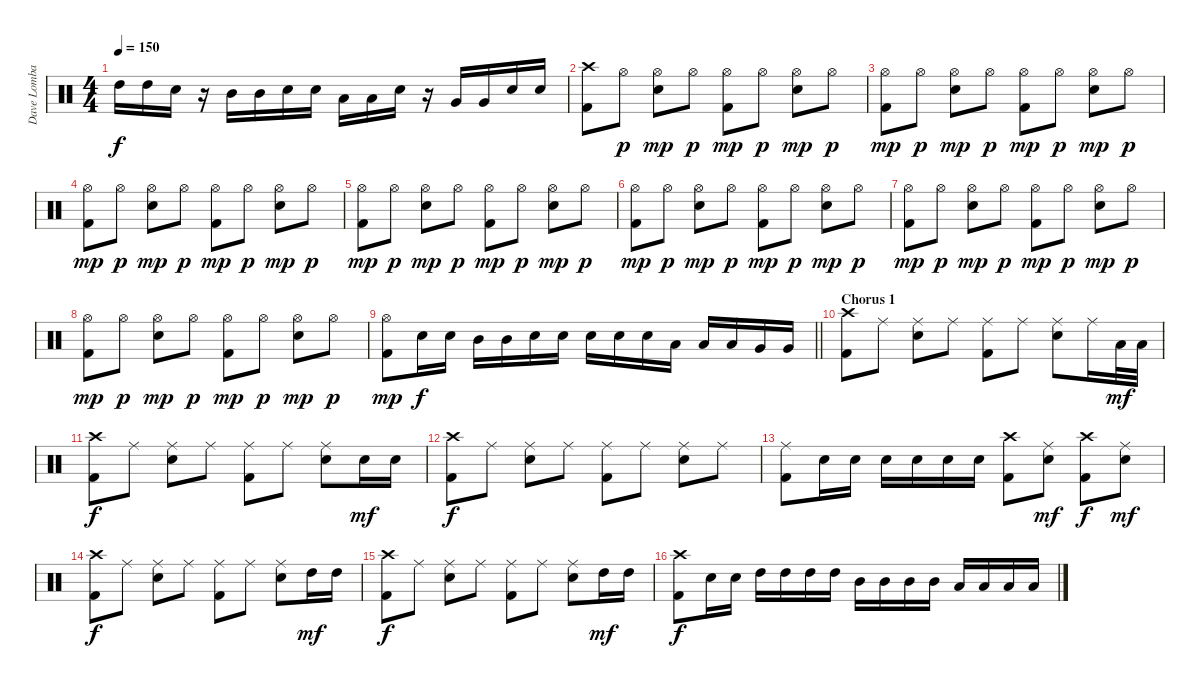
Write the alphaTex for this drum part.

\track ("Dave Lombardo (Drums)" "Dave Lomba") {instrument percussion}
\staff {score}
\articulation defaults
\ts (4 4)
\tempo 150
\clef neutral
\ks c "High Tom (hit)".16{dy f} "High Tom (hit)".16 "Electric Snare (hit)".16
r.16 "Mid Tom (hit)".16 "Mid Tom (hit)".16 "Electric Snare (hit)".16 "Electric Snare (hit)".16 "Low Tom (hit)".16 "Low Tom (hit)".16 "Electric Snare (hit)".16 r.16 "Very Low Tom (hit)".16 "Very Low Tom (hit)".16 "Electric Snare (hit)".16 "Electric Snare (hit)".16 |
("Crash high (hit)" "Kick (hit) 2").8 "Hi-Hat (open)".8{dy p} ("Hi-Hat (open)" "Electric Snare (hit)").8{dy mp} "Hi-Hat (open)".8{dy p} ("Hi-Hat (open)" "Kick (hit) 2").8{dy mp} "Hi-Hat (open)".8{dy p} ("Hi-Hat (open)" "Electric Snare (hit)").8{dy mp} "Hi-Hat (open)".8{dy p} |
("Hi-Hat (open)" "Kick (hit) 2").8{dy mp} "Hi-Hat (open)".8{dy p} ("Hi-Hat (open)" "Electric Snare (hit)").8{dy mp} "Hi-Hat (open)".8{dy p} ("Hi-Hat (open)" "Kick (hit) 2").8{dy mp} "Hi-Hat (open)".8{dy p} ("Hi-Hat (open)" "Electric Snare (hit)").8{dy mp} "Hi-Hat (open)".8{dy p} |
("Hi-Hat (open)" "Kick (hit) 2").8{dy mp} "Hi-Hat (open)".8{dy p} ("Hi-Hat (open)" "Electric Snare (hit)").8{dy mp} "Hi-Hat (open)".8{dy p} ("Hi-Hat (open)" "Kick (hit) 2").8{dy mp} "Hi-Hat (open)".8{dy p} ("Hi-Hat (open)" "Electric Snare (hit)").8{dy mp} "Hi-Hat (open)".8{dy p} |
("Hi-Hat (open)" "Kick (hit) 2").8{dy mp} "Hi-Hat (open)".8{dy p} ("Hi-Hat (open)" "Electric Snare (hit)").8{dy mp} "Hi-Hat (open)".8{dy p} ("Hi-Hat (open)" "Kick (hit) 2").8{dy mp} "Hi-Hat (open)".8{dy p} ("Hi-Hat (open)" "Electric Snare (hit)").8{dy mp} "Hi-Hat (open)".8{dy p} |
("Hi-Hat (open)" "Kick (hit) 2").8{dy mp} "Hi-Hat (open)".8{dy p} ("Hi-Hat (open)" "Electric Snare (hit)").8{dy mp} "Hi-Hat (open)".8{dy p} ("Hi-Hat (open)" "Kick (hit) 2").8{dy mp} "Hi-Hat (open)".8{dy p} ("Hi-Hat (open)" "Electric Snare (hit)").8{dy mp} "Hi-Hat (open)".8{dy p} |
("Hi-Hat (open)" "Kick (hit) 2").8{dy mp} "Hi-Hat (open)".8{dy p} ("Hi-Hat (open)" "Electric Snare (hit)").8{dy mp} "Hi-Hat (open)".8{dy p} ("Hi-Hat (open)" "Kick (hit) 2").8{dy mp} "Hi-Hat (open)".8{dy p} ("Hi-Hat (open)" "Electric Snare (hit)").8{dy mp} "Hi-Hat (open)".8{dy p} |
("Hi-Hat (open)" "Kick (hit) 2").8{dy mp} "Hi-Hat (open)".8{dy p} ("Hi-Hat (open)" "Electric Snare (hit)").8{dy mp} "Hi-Hat (open)".8{dy p} ("Hi-Hat (open)" "Kick (hit) 2").8{dy mp} "Hi-Hat (open)".8{dy p} ("Hi-Hat (open)" "Electric Snare (hit)").8{dy mp} "Hi-Hat (open)".8{dy p} |
\barLineRight lightlight
("Hi-Hat (open)" "Kick (hit) 2").8{dy mp} "Electric Snare (hit)".16{dy f} "Electric Snare (hit)".16 "Mid Tom (hit)".16 "Mid Tom (hit)".16 "Electric Snare (hit)".16 "Electric Snare (hit)".16 "Electric Snare (hit)".16 "Electric Snare (hit)".16 "Electric Snare (hit)".16 "Low Tom (hit)".16 "Low Tom (hit)".16 "Low Tom (hit)".16 "Very Low Tom (hit)".16 "Very Low Tom (hit)".16 |
\section ("" "Chorus 1")
("Crash high (hit)" "Kick (hit) 2").8 "Ride (middle)".8 ("Ride (middle)" "Electric Snare (hit)").8 "Ride (middle)".8 ("Ride (middle)" "Kick (hit) 2").8 "Ride (middle)".8 ("Ride (middle)" "Electric Snare (hit)").8 "Ride (middle)".16 "Low Tom (hit)".32{dy mf} "Low Tom (hit)".32 |
("Crash high (hit)" "Kick (hit) 2").8{dy f} "Ride (middle)".8 ("Ride (middle)" "Electric Snare (hit)").8 "Ride (middle)".8 ("Ride (middle)" "Kick (hit) 2").8 "Ride (middle)".8 ("Ride (middle)" "Electric Snare (hit)").8 "Electric Snare (hit)".16{dy mf} "Electric Snare (hit)".16 |
("Crash high (hit)" "Kick (hit) 2").8{dy f} "Ride (middle)".8 ("Ride (middle)" "Electric Snare (hit)").8 "Ride (middle)".8 ("Ride (middle)" "Kick (hit) 2").8 "Ride (middle)".8 ("Ride (middle)" "Electric Snare (hit)").8 "Ride (middle)".8 |
("Ride (middle)" "Kick (hit) 2").8 "Electric Snare (hit)".16 "Electric Snare (hit)".16 "Electric Snare (hit)".16 "Electric Snare (hit)".16 "Electric Snare (hit)".16 "Electric Snare (hit)".16 ("Crash high (hit)" "Kick (hit) 2").8 ("Ride (middle)" "Electric Snare (hit)").8{dy mf} ("Crash high (hit)" "Kick (hit) 2").8{dy f} ("Ride (middle)" "Electric Snare (hit)").8{dy mf} |
("Crash high (hit)" "Kick (hit) 2").8{dy f} "Ride (middle)".8 ("Ride (middle)" "Electric Snare (hit)").8 "Ride (middle)".8 ("Ride (middle)" "Kick (hit) 2").8 "Ride (middle)".8 ("Ride (middle)" "Electric Snare (hit)").8 "High Tom (hit)".16{dy mf} "High Tom (hit)".16 |
("Crash high (hit)" "Kick (hit) 2").8{dy f} "Ride (middle)".8 ("Ride (middle)" "Electric Snare (hit)").8 "Ride (middle)".8 ("Ride (middle)" "Kick (hit) 2").8 "Ride (middle)".8 ("Ride (middle)" "Electric Snare (hit)").8 "High Tom (hit)".16{dy mf} "High Tom (hit)".16 |
("Crash high (hit)" "Kick (hit) 2").8{dy f} "Electric Snare (hit)".16 "Electric Snare (hit)".16 "High Tom (hit)".16 "High Tom (hit)".16 "High Tom (hit)".16 "High Tom (hit)".16 "Mid Tom (hit)".16 "Mid Tom (hit)".16 "Mid Tom (hit)".16 "Mid Tom (hit)".16 "Low Tom (hit)".16 "Low Tom (hit)".16 "Low Tom (hit)".16 "Low Tom (hit)".16
